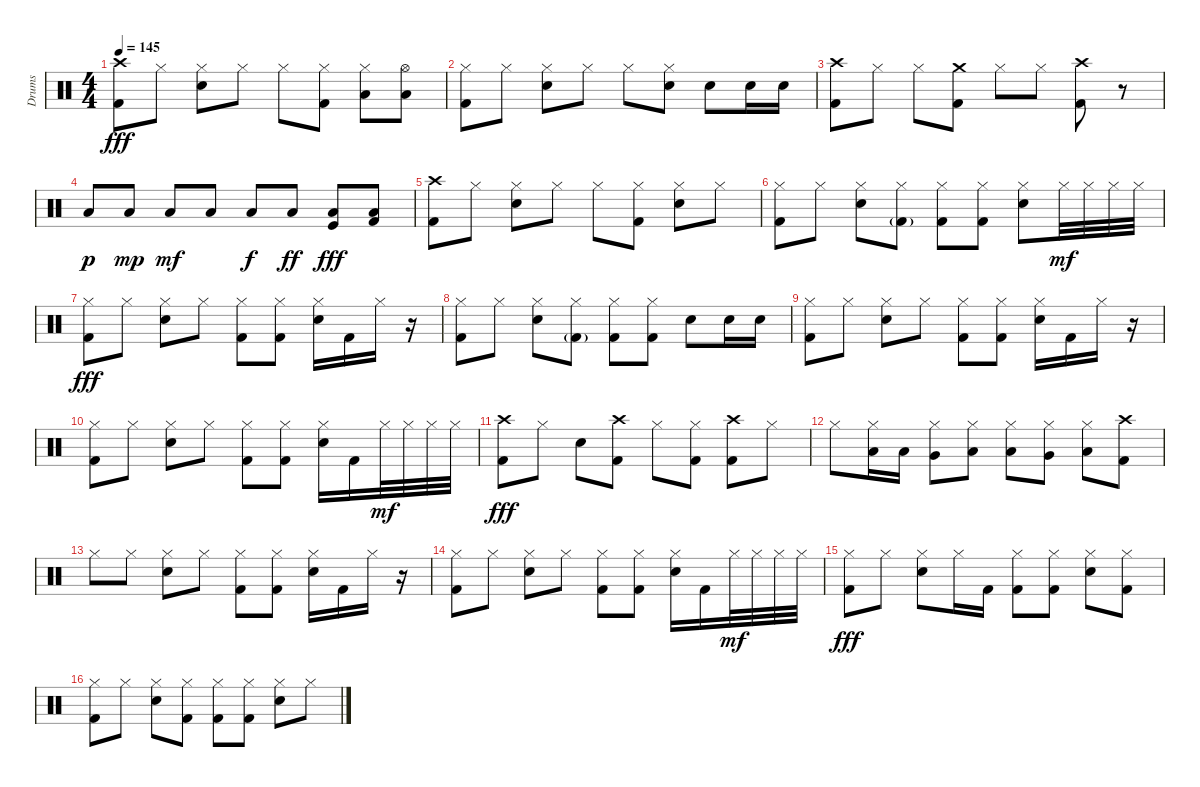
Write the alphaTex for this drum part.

\track ("Drums" "Drums") {instrument percussion}
\staff {score}
\articulation defaults
\ts (4 4)
\tempo 145
\clef neutral
\ks c
("Crash high (hit)" "Kick (hit) 2").8{dy fff} "Hi-Hat (closed)".8 ("Hi-Hat (closed)" "Snare (hit) 2").8 "Hi-Hat (closed)".8 "Hi-Hat (closed)".8 ("Hi-Hat (closed)" "Kick (hit) 2").8 ("Hi-Hat (closed)" "Low Tom (hit)").8 ("Hi-Hat (open)" "Low Floor Tom (hit)").8 |
("Hi-Hat (closed)" "Kick (hit) 2").8 "Hi-Hat (closed)".8 ("Hi-Hat (closed)" "Snare (hit) 2").8 "Hi-Hat (closed)".8 "Hi-Hat (closed)".8 ("Hi-Hat (closed)" "Snare (hit) 2").8 "Snare (hit) 2".8 "Snare (hit) 2".16 "Snare (hit) 2".16 |
("Crash high (hit)" "Kick (hit) 2").8 "Hi-Hat (closed)".8 "Hi-Hat (closed)".8 ("Crash medium (hit)" "Kick (hit) 2").8 "Hi-Hat (closed)".8 "Hi-Hat (closed)".8 ("Crash high (hit)" "Kick (hit) 2").8 r.8 |
"Low Floor Tom (hit)".8{dy p} "Low Floor Tom (hit)".8{dy mp} "Low Floor Tom (hit)".8{dy mf} "Low Floor Tom (hit)".8 "Low Floor Tom (hit)".8{dy f} "Low Floor Tom (hit)".8{dy ff} ("Low Floor Tom (hit)" "Kick (hit)").8{dy fff} ("Low Floor Tom (hit)" "Kick (hit) 2").8 |
("Crash high (hit)" "Kick (hit) 2").8 "Hi-Hat (closed)".8 ("Hi-Hat (closed)" "Snare (hit) 2").8 "Hi-Hat (closed)".8 "Hi-Hat (closed)".8 ("Hi-Hat (closed)" "Kick (hit) 2").8 ("Hi-Hat (closed)" "Snare (hit) 2").8 "Hi-Hat (closed)".8 |
("Hi-Hat (closed)" "Kick (hit) 2").8 "Hi-Hat (closed)".8 ("Hi-Hat (closed)" "Snare (hit) 2").8 ("Hi-Hat (closed)" "Kick (hit) 2"{g}).8 ("Hi-Hat (closed)" "Kick (hit) 2").8 ("Hi-Hat (closed)" "Kick (hit) 2").8 ("Hi-Hat (closed)" "Snare (hit) 2").8 "Hi-Hat (closed)".32{dy mf} "Hi-Hat (closed)".32 "Hi-Hat (closed)".32 "Hi-Hat (closed)".32 |
("Hi-Hat (closed)" "Kick (hit) 2").8{dy fff} "Hi-Hat (closed)".8 ("Hi-Hat (closed)" "Snare (hit) 2").8 "Hi-Hat (closed)".8 ("Hi-Hat (closed)" "Kick (hit) 2").8 ("Hi-Hat (closed)" "Kick (hit) 2").8 ("Hi-Hat (closed)" "Snare (hit) 2").16 "Kick (hit) 2".16 "Hi-Hat (closed)".16 r.16 |
("Hi-Hat (closed)" "Kick (hit) 2").8 "Hi-Hat (closed)".8 ("Hi-Hat (closed)" "Snare (hit) 2").8 ("Hi-Hat (closed)" "Kick (hit) 2"{g}).8 ("Hi-Hat (closed)" "Kick (hit) 2").8 ("Hi-Hat (closed)" "Kick (hit) 2").8 "Snare (hit) 2".8 "Snare (hit) 2".16 "Snare (hit) 2".16 |
("Hi-Hat (closed)" "Kick (hit) 2").8 "Hi-Hat (closed)".8 ("Hi-Hat (closed)" "Snare (hit) 2").8 "Hi-Hat (closed)".8 ("Hi-Hat (closed)" "Kick (hit) 2").8 ("Hi-Hat (closed)" "Kick (hit) 2").8 ("Hi-Hat (closed)" "Snare (hit) 2").16 "Kick (hit) 2".16 "Hi-Hat (closed)".16 r.16 |
("Hi-Hat (closed)" "Kick (hit) 2").8 "Hi-Hat (closed)".8 ("Hi-Hat (closed)" "Snare (hit) 2").8 "Hi-Hat (closed)".8 ("Hi-Hat (closed)" "Kick (hit) 2").8 ("Hi-Hat (closed)" "Kick (hit) 2").8 ("Hi-Hat (closed)" "Snare (hit) 2").16 "Kick (hit) 2".16 "Hi-Hat (closed)".32{dy mf} "Hi-Hat (closed)".32 "Hi-Hat (closed)".32 "Hi-Hat (closed)".32 |
("Crash high (hit)" "Kick (hit) 2").8{dy fff} "Hi-Hat (closed)".8 "Snare (hit) 2".8 ("Crash high (hit)" "Kick (hit) 2").8 "Hi-Hat (closed)".8 ("Hi-Hat (closed)" "Kick (hit) 2").8 ("Crash high (hit)" "Kick (hit) 2").8 "Hi-Hat (closed)".8 |
"Hi-Hat (closed)".8 ("Hi-Hat (closed)" "Low Tom (hit)").16 "Low Tom (hit)".16 ("Hi-Hat (closed)" "Very Low Tom (hit)").8 ("Hi-Hat (closed)" "Low Floor Tom (hit)").8 ("Hi-Hat (closed)" "Low Tom (hit)").8 ("Hi-Hat (closed)" "Very Low Tom (hit)").8 ("Hi-Hat (closed)" "Low Floor Tom (hit)").8 ("Crash high (hit)" "Kick (hit) 2").8 |
"Hi-Hat (closed)".8 "Hi-Hat (closed)".8 ("Hi-Hat (closed)" "Snare (hit) 2").8 "Hi-Hat (closed)".8 ("Hi-Hat (closed)" "Kick (hit) 2").8 ("Hi-Hat (closed)" "Kick (hit) 2").8 ("Hi-Hat (closed)" "Snare (hit) 2").16 "Kick (hit) 2".16 "Hi-Hat (closed)".16 r.16 |
("Hi-Hat (closed)" "Kick (hit) 2").8 "Hi-Hat (closed)".8 ("Hi-Hat (closed)" "Snare (hit) 2").8 "Hi-Hat (closed)".8 ("Hi-Hat (closed)" "Kick (hit) 2").8 ("Hi-Hat (closed)" "Kick (hit) 2").8 ("Hi-Hat (closed)" "Snare (hit) 2").16 "Kick (hit) 2".16 "Hi-Hat (closed)".32{dy mf} "Hi-Hat (closed)".32 "Hi-Hat (closed)".32 "Hi-Hat (closed)".32 |
("Hi-Hat (closed)" "Kick (hit) 2").8{dy fff} "Hi-Hat (closed)".8 ("Hi-Hat (closed)" "Snare (hit) 2").8 "Hi-Hat (closed)".16 "Kick (hit) 2".16 ("Hi-Hat (closed)" "Kick (hit) 2").8 ("Hi-Hat (closed)" "Kick (hit) 2").8 ("Hi-Hat (closed)" "Snare (hit) 2").8 ("Hi-Hat (closed)" "Kick (hit) 2").8 |
("Hi-Hat (closed)" "Kick (hit) 2").8 "Hi-Hat (closed)".8 ("Hi-Hat (closed)" "Snare (hit) 2").8 ("Hi-Hat (closed)" "Kick (hit) 2").8 ("Hi-Hat (closed)" "Kick (hit) 2").8 ("Hi-Hat (closed)" "Kick (hit) 2").8 ("Hi-Hat (closed)" "Snare (hit) 2").8 "Hi-Hat (closed)".8
